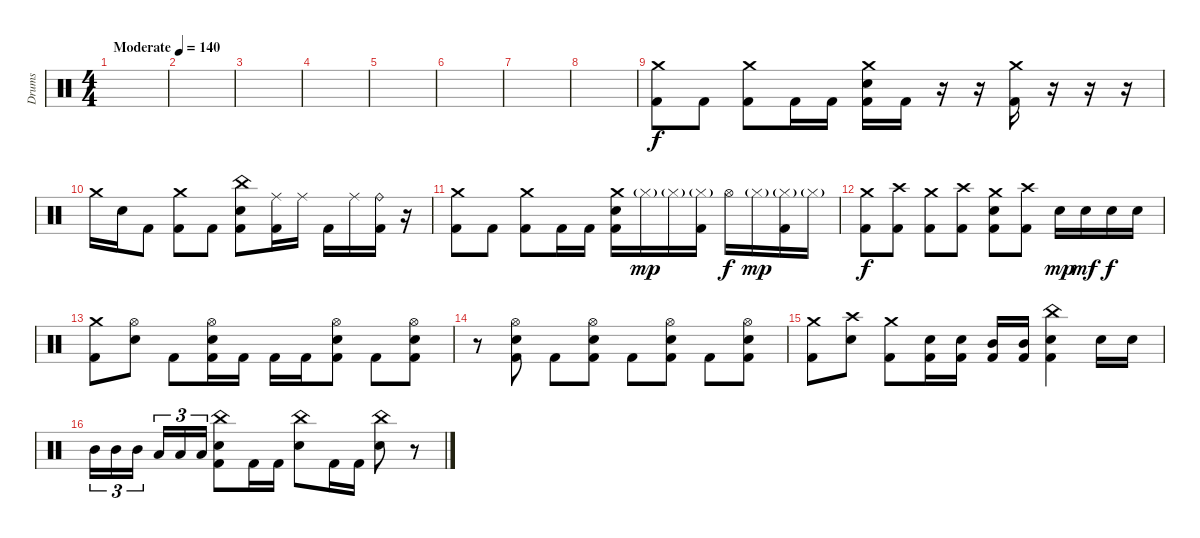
\track ("Drums" "Drums") {instrument percussion}
\staff {score}
\articulation defaults
\ts (4 4)
\tempo (140 "Moderate")
\clef neutral
\ks c
|
|
|
|
|
|
|
|
("Crash medium (hit)" "Kick (hit) 2").8 "Kick (hit) 2".8 ("Crash medium (hit)" "Kick (hit) 2").8 "Kick (hit) 2".16 "Kick (hit) 2".16 ("Crash medium (hit)" "Electric Snare (hit)" "Kick (hit) 2").16 "Kick (hit) 2".16 r.16 r.16 ("Crash medium (hit)" "Kick (hit) 2").16 r.16 r.16 r.16 |
"Crash medium (hit)".16 "Electric Snare (hit)".16 "Kick (hit) 2".8 ("Crash medium (hit)" "Kick (hit) 2").8 "Kick (hit) 2".8 ("China (hit)" "Electric Snare (hit)" "Kick (hit) 2").8 ("Ride (middle)" "Kick (hit) 2").16 "Ride (middle)".16 "Kick (hit) 2".16 "Ride (middle)".16 ("Ride (bell)" "Kick (hit) 2").16 r.16 |
("Crash medium (hit)" "Kick (hit) 2").8 "Kick (hit) 2".8 ("Crash medium (hit)" "Kick (hit) 2").8 "Kick (hit) 2".16 "Kick (hit) 2".16 ("Crash medium (hit)" "Electric Snare (hit)" "Kick (hit) 2").16 "Hi-Hat (closed)"{g}.16{dy mp} "Hi-Hat (closed)"{g}.16 ("Hi-Hat (closed)"{g} "Kick (hit) 2").16 "Hi-Hat (open)".16{dy f} "Hi-Hat (closed)"{g}.16{dy mp} ("Hi-Hat (closed)"{g} "Kick (hit) 2").16 "Hi-Hat (closed)"{g}.16 |
("Crash medium (hit)" "Kick (hit) 2").8{dy f} ("Crash high (hit)" "Kick (hit) 2").8 ("Crash medium (hit)" "Kick (hit) 2").8 ("Crash high (hit)" "Kick (hit) 2").8 ("Crash medium (hit)" "Electric Snare (hit)" "Kick (hit) 2").8 ("Crash high (hit)" "Kick (hit) 2").8 "Electric Snare (hit)".16{dy mp} "Electric Snare (hit)".16{dy mf} "Electric Snare (hit)".16{dy f} "Electric Snare (hit)".16 |
("Crash medium (hit)" "Kick (hit) 2").8 ("Hi-Hat (open)" "Electric Snare (hit)").8 "Kick (hit) 2".8 ("Hi-Hat (open)" "Electric Snare (hit)" "Kick (hit) 2").16 "Kick (hit) 2".16 "Kick (hit) 2".16 "Kick (hit) 2".16 ("Hi-Hat (open)" "Electric Snare (hit)" "Kick (hit) 2").8 "Kick (hit) 2".8 ("Hi-Hat (open)" "Electric Snare (hit)" "Kick (hit) 2").8 |
r.8 ("Hi-Hat (open)" "Electric Snare (hit)" "Kick (hit) 2").8 "Kick (hit) 2".8 ("Hi-Hat (open)" "Electric Snare (hit)" "Kick (hit) 2").8 "Kick (hit) 2".8 ("Hi-Hat (open)" "Electric Snare (hit)" "Kick (hit) 2").8 "Kick (hit) 2".8 ("Hi-Hat (open)" "Electric Snare (hit)" "Kick (hit) 2").8 |
("Crash medium (hit)" "Kick (hit) 2").8 ("Crash high (hit)" "Electric Snare (hit)").8 ("Crash medium (hit)" "Kick (hit) 2").8 ("Electric Snare (hit)" "Kick (hit) 2").16 ("Electric Snare (hit)" "Kick (hit) 2").16 ("Mid Tom (hit)" "Kick (hit) 2").16 ("Mid Tom (hit)" "Kick (hit) 2").16 ("China (hit)" "Electric Snare (hit)" "Kick (hit) 2").4 "Electric Snare (hit)".16 "Electric Snare (hit)".16 |
"Mid Tom (hit)".16{tu (3 2)} "Mid Tom (hit)".16{tu (3 2)} "Mid Tom (hit)".16{tu (3 2) beam splitsecondary} "Low Tom (hit)".16{tu (3 2)} "Low Tom (hit)".16{tu (3 2)} "Low Tom (hit)".16{tu (3 2)} ("China (hit)" "Electric Snare (hit)" "Kick (hit) 2").8 "Kick (hit) 2".16 "Kick (hit) 2".16 ("China (hit)" "Electric Snare (hit)").8 "Kick (hit) 2".16 "Kick (hit) 2".16 ("China (hit)" "Electric Snare (hit)").8 r.8
